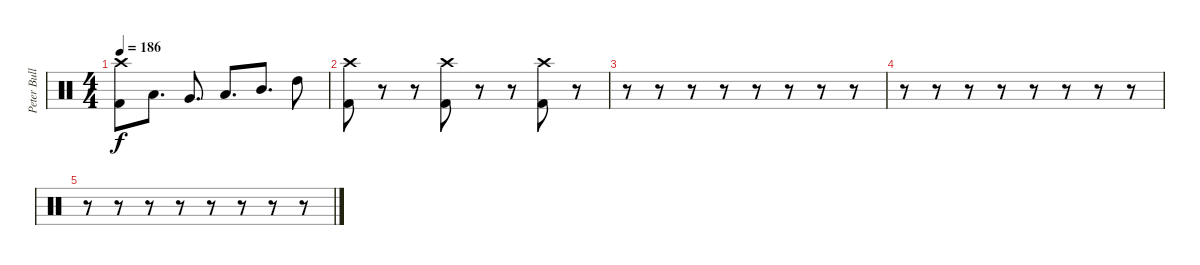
\track ("Peter Bullrich" "Peter Bull") {instrument percussion}
\staff {score}
\articulation defaults
\ts (4 4)
\tempo 186
\clef neutral
\ks c
("Crash high (hit)" "Kick (hit) 2").8{dy f} "Low Floor Tom (hit)".8{d} "Very Low Tom (hit)".8{d} "Low Tom (hit)".8{d} "Mid Tom (hit)".8{d} "High Tom (hit)".8 |
("Crash high (hit)" "Kick (hit) 2").8 r.8 r.8 ("Crash high (hit)" "Kick (hit) 2").8 r.8 r.8 ("Crash high (hit)" "Kick (hit) 2").8 r.8 |
r.8 r.8 r.8 r.8 r.8 r.8 r.8 r.8 |
r.8 r.8 r.8 r.8 r.8 r.8 r.8 r.8 |
r.8 r.8 r.8 r.8 r.8 r.8 r.8 r.8
